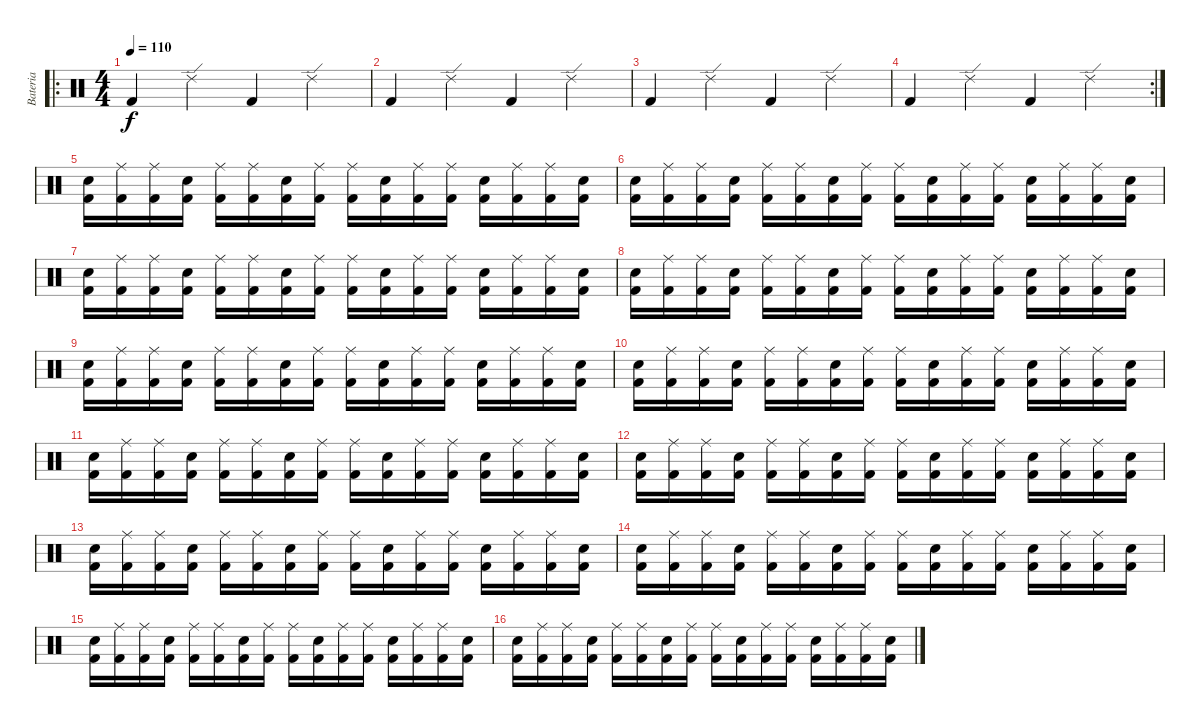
\track ("Bateria" "Bateria") {instrument percussion}
\staff {score}
\articulation defaults
\ro
\ts (4 4)
\tempo 110
\clef neutral
\ks c "Kick (hit) 2".4{dy f} "Ride (edge) 2".4 "Kick (hit) 2".4 "Ride (edge) 2".4
|
"Kick (hit) 2".4 "Ride (edge) 2".4 "Kick (hit) 2".4 "Ride (edge) 2".4 |
"Kick (hit) 2".4 "Ride (edge) 2".4 "Kick (hit) 2".4 "Ride (edge) 2".4 |
\rc 2 "Kick (hit) 2".4 "Ride (edge) 2".4 "Kick (hit) 2".4 "Ride (edge) 2".4
|
("Electric Snare (hit)" "Kick (hit) 2").16 ("Ride (middle)" "Kick (hit) 2").16 ("Ride (middle)" "Kick (hit) 2").16 ("Electric Snare (hit)" "Kick (hit) 2").16 ("Ride (middle)" "Kick (hit) 2").16 ("Ride (middle)" "Kick (hit) 2").16 ("Electric Snare (hit)" "Kick (hit) 2").16 ("Ride (middle)" "Kick (hit) 2").16 ("Ride (middle)" "Kick (hit) 2").16 ("Electric Snare (hit)" "Kick (hit) 2").16 ("Ride (middle)" "Kick (hit) 2").16 ("Ride (middle)" "Kick (hit) 2").16 ("Electric Snare (hit)" "Kick (hit) 2").16 ("Ride (middle)" "Kick (hit) 2").16 ("Ride (middle)" "Kick (hit) 2").16 ("Electric Snare (hit)" "Kick (hit) 2").16 |
("Electric Snare (hit)" "Kick (hit) 2").16 ("Ride (middle)" "Kick (hit) 2").16 ("Ride (middle)" "Kick (hit) 2").16 ("Electric Snare (hit)" "Kick (hit) 2").16 ("Ride (middle)" "Kick (hit) 2").16 ("Ride (middle)" "Kick (hit) 2").16 ("Electric Snare (hit)" "Kick (hit) 2").16 ("Ride (middle)" "Kick (hit) 2").16 ("Ride (middle)" "Kick (hit) 2").16 ("Electric Snare (hit)" "Kick (hit) 2").16 ("Ride (middle)" "Kick (hit) 2").16 ("Ride (middle)" "Kick (hit) 2").16 ("Electric Snare (hit)" "Kick (hit) 2").16 ("Ride (middle)" "Kick (hit) 2").16 ("Ride (middle)" "Kick (hit) 2").16 ("Electric Snare (hit)" "Kick (hit) 2").16 |
("Electric Snare (hit)" "Kick (hit) 2").16 ("Ride (middle)" "Kick (hit) 2").16 ("Ride (middle)" "Kick (hit) 2").16 ("Electric Snare (hit)" "Kick (hit) 2").16 ("Ride (middle)" "Kick (hit) 2").16 ("Ride (middle)" "Kick (hit) 2").16 ("Electric Snare (hit)" "Kick (hit) 2").16 ("Ride (middle)" "Kick (hit) 2").16 ("Ride (middle)" "Kick (hit) 2").16 ("Electric Snare (hit)" "Kick (hit) 2").16 ("Ride (middle)" "Kick (hit) 2").16 ("Ride (middle)" "Kick (hit) 2").16 ("Electric Snare (hit)" "Kick (hit) 2").16 ("Ride (middle)" "Kick (hit) 2").16 ("Ride (middle)" "Kick (hit) 2").16 ("Electric Snare (hit)" "Kick (hit) 2").16 |
("Electric Snare (hit)" "Kick (hit) 2").16 ("Ride (middle)" "Kick (hit) 2").16 ("Ride (middle)" "Kick (hit) 2").16 ("Electric Snare (hit)" "Kick (hit) 2").16 ("Ride (middle)" "Kick (hit) 2").16 ("Ride (middle)" "Kick (hit) 2").16 ("Electric Snare (hit)" "Kick (hit) 2").16 ("Ride (middle)" "Kick (hit) 2").16 ("Ride (middle)" "Kick (hit) 2").16 ("Electric Snare (hit)" "Kick (hit) 2").16 ("Ride (middle)" "Kick (hit) 2").16 ("Ride (middle)" "Kick (hit) 2").16 ("Electric Snare (hit)" "Kick (hit) 2").16 ("Ride (middle)" "Kick (hit) 2").16 ("Ride (middle)" "Kick (hit) 2").16 ("Electric Snare (hit)" "Kick (hit) 2").16 |
("Electric Snare (hit)" "Kick (hit) 2").16 ("Ride (middle)" "Kick (hit) 2").16 ("Ride (middle)" "Kick (hit) 2").16 ("Electric Snare (hit)" "Kick (hit) 2").16 ("Ride (middle)" "Kick (hit) 2").16 ("Ride (middle)" "Kick (hit) 2").16 ("Electric Snare (hit)" "Kick (hit) 2").16 ("Ride (middle)" "Kick (hit) 2").16 ("Ride (middle)" "Kick (hit) 2").16 ("Electric Snare (hit)" "Kick (hit) 2").16 ("Ride (middle)" "Kick (hit) 2").16 ("Ride (middle)" "Kick (hit) 2").16 ("Electric Snare (hit)" "Kick (hit) 2").16 ("Ride (middle)" "Kick (hit) 2").16 ("Ride (middle)" "Kick (hit) 2").16 ("Electric Snare (hit)" "Kick (hit) 2").16 |
("Electric Snare (hit)" "Kick (hit) 2").16 ("Ride (middle)" "Kick (hit) 2").16 ("Ride (middle)" "Kick (hit) 2").16 ("Electric Snare (hit)" "Kick (hit) 2").16 ("Ride (middle)" "Kick (hit) 2").16 ("Ride (middle)" "Kick (hit) 2").16 ("Electric Snare (hit)" "Kick (hit) 2").16 ("Ride (middle)" "Kick (hit) 2").16 ("Ride (middle)" "Kick (hit) 2").16 ("Electric Snare (hit)" "Kick (hit) 2").16 ("Ride (middle)" "Kick (hit) 2").16 ("Ride (middle)" "Kick (hit) 2").16 ("Electric Snare (hit)" "Kick (hit) 2").16 ("Ride (middle)" "Kick (hit) 2").16 ("Ride (middle)" "Kick (hit) 2").16 ("Electric Snare (hit)" "Kick (hit) 2").16 |
("Electric Snare (hit)" "Kick (hit) 2").16 ("Ride (middle)" "Kick (hit) 2").16 ("Ride (middle)" "Kick (hit) 2").16 ("Electric Snare (hit)" "Kick (hit) 2").16 ("Ride (middle)" "Kick (hit) 2").16 ("Ride (middle)" "Kick (hit) 2").16 ("Electric Snare (hit)" "Kick (hit) 2").16 ("Ride (middle)" "Kick (hit) 2").16 ("Ride (middle)" "Kick (hit) 2").16 ("Electric Snare (hit)" "Kick (hit) 2").16 ("Ride (middle)" "Kick (hit) 2").16 ("Ride (middle)" "Kick (hit) 2").16 ("Electric Snare (hit)" "Kick (hit) 2").16 ("Ride (middle)" "Kick (hit) 2").16 ("Ride (middle)" "Kick (hit) 2").16 ("Electric Snare (hit)" "Kick (hit) 2").16 |
("Electric Snare (hit)" "Kick (hit) 2").16 ("Ride (middle)" "Kick (hit) 2").16 ("Ride (middle)" "Kick (hit) 2").16 ("Electric Snare (hit)" "Kick (hit) 2").16 ("Ride (middle)" "Kick (hit) 2").16 ("Ride (middle)" "Kick (hit) 2").16 ("Electric Snare (hit)" "Kick (hit) 2").16 ("Ride (middle)" "Kick (hit) 2").16 ("Ride (middle)" "Kick (hit) 2").16 ("Electric Snare (hit)" "Kick (hit) 2").16 ("Ride (middle)" "Kick (hit) 2").16 ("Ride (middle)" "Kick (hit) 2").16 ("Electric Snare (hit)" "Kick (hit) 2").16 ("Ride (middle)" "Kick (hit) 2").16 ("Ride (middle)" "Kick (hit) 2").16 ("Electric Snare (hit)" "Kick (hit) 2").16 |
("Electric Snare (hit)" "Kick (hit) 2").16 ("Ride (middle)" "Kick (hit) 2").16 ("Ride (middle)" "Kick (hit) 2").16 ("Electric Snare (hit)" "Kick (hit) 2").16 ("Ride (middle)" "Kick (hit) 2").16 ("Ride (middle)" "Kick (hit) 2").16 ("Electric Snare (hit)" "Kick (hit) 2").16 ("Ride (middle)" "Kick (hit) 2").16 ("Ride (middle)" "Kick (hit) 2").16 ("Electric Snare (hit)" "Kick (hit) 2").16 ("Ride (middle)" "Kick (hit) 2").16 ("Ride (middle)" "Kick (hit) 2").16 ("Electric Snare (hit)" "Kick (hit) 2").16 ("Ride (middle)" "Kick (hit) 2").16 ("Ride (middle)" "Kick (hit) 2").16 ("Electric Snare (hit)" "Kick (hit) 2").16 |
("Electric Snare (hit)" "Kick (hit) 2").16 ("Ride (middle)" "Kick (hit) 2").16 ("Ride (middle)" "Kick (hit) 2").16 ("Electric Snare (hit)" "Kick (hit) 2").16 ("Ride (middle)" "Kick (hit) 2").16 ("Ride (middle)" "Kick (hit) 2").16 ("Electric Snare (hit)" "Kick (hit) 2").16 ("Ride (middle)" "Kick (hit) 2").16 ("Ride (middle)" "Kick (hit) 2").16 ("Electric Snare (hit)" "Kick (hit) 2").16 ("Ride (middle)" "Kick (hit) 2").16 ("Ride (middle)" "Kick (hit) 2").16 ("Electric Snare (hit)" "Kick (hit) 2").16 ("Ride (middle)" "Kick (hit) 2").16 ("Ride (middle)" "Kick (hit) 2").16 ("Electric Snare (hit)" "Kick (hit) 2").16 |
("Electric Snare (hit)" "Kick (hit) 2").16 ("Ride (middle)" "Kick (hit) 2").16 ("Ride (middle)" "Kick (hit) 2").16 ("Electric Snare (hit)" "Kick (hit) 2").16 ("Ride (middle)" "Kick (hit) 2").16 ("Ride (middle)" "Kick (hit) 2").16 ("Electric Snare (hit)" "Kick (hit) 2").16 ("Ride (middle)" "Kick (hit) 2").16 ("Ride (middle)" "Kick (hit) 2").16 ("Electric Snare (hit)" "Kick (hit) 2").16 ("Ride (middle)" "Kick (hit) 2").16 ("Ride (middle)" "Kick (hit) 2").16 ("Electric Snare (hit)" "Kick (hit) 2").16 ("Ride (middle)" "Kick (hit) 2").16 ("Ride (middle)" "Kick (hit) 2").16 ("Electric Snare (hit)" "Kick (hit) 2").16 |
("Electric Snare (hit)" "Kick (hit) 2").16 ("Ride (middle)" "Kick (hit) 2").16 ("Ride (middle)" "Kick (hit) 2").16 ("Electric Snare (hit)" "Kick (hit) 2").16 ("Ride (middle)" "Kick (hit) 2").16 ("Ride (middle)" "Kick (hit) 2").16 ("Electric Snare (hit)" "Kick (hit) 2").16 ("Ride (middle)" "Kick (hit) 2").16 ("Ride (middle)" "Kick (hit) 2").16 ("Electric Snare (hit)" "Kick (hit) 2").16 ("Ride (middle)" "Kick (hit) 2").16 ("Ride (middle)" "Kick (hit) 2").16 ("Electric Snare (hit)" "Kick (hit) 2").16 ("Ride (middle)" "Kick (hit) 2").16 ("Ride (middle)" "Kick (hit) 2").16 ("Electric Snare (hit)" "Kick (hit) 2").16
